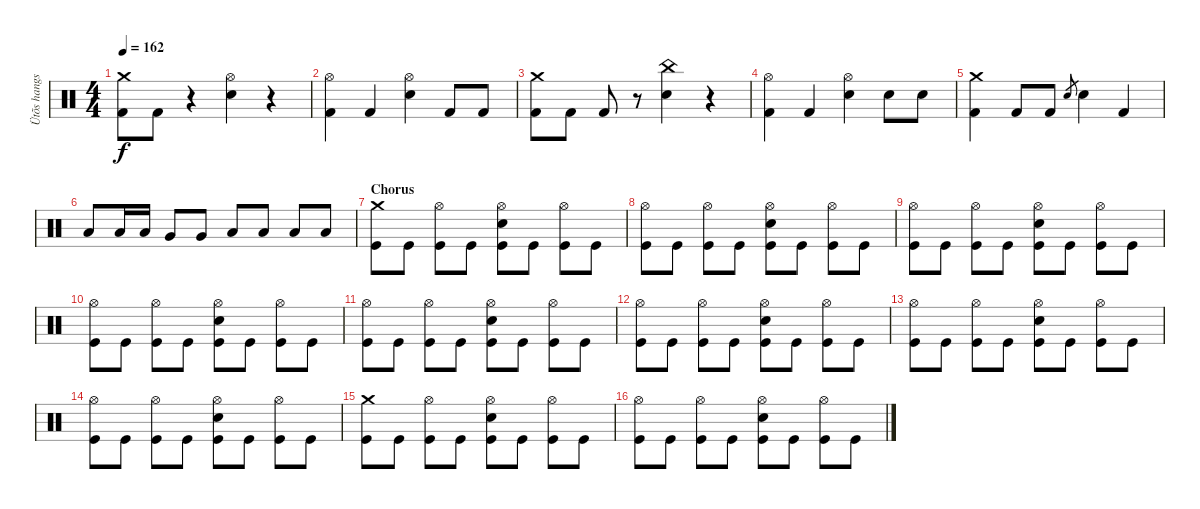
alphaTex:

\track ("Ütõs hangszer" "Ütõs hangs") {instrument percussion}
\staff {score}
\articulation defaults
\ts (4 4)
\tempo 162
\clef neutral
\ks c
("Crash medium (hit)" "Kick (hit) 2").8{dy f} "Kick (hit) 2".8 r.4 ("Hi-Hat (open)" "Electric Snare (hit)").4 r.4 |
("Hi-Hat (open)" "Kick (hit) 2").4 "Kick (hit) 2".4 ("Hi-Hat (open)" "Electric Snare (hit)").4 "Kick (hit) 2".8 "Kick (hit) 2".8 |
("Crash medium (hit)" "Kick (hit) 2").8 "Kick (hit) 2".8 "Kick (hit) 2".8 r.8 ("China (hit)" "Electric Snare (hit)").4 r.4 |
("Hi-Hat (open)" "Kick (hit) 2").4 "Kick (hit) 2".4 ("Hi-Hat (open)" "Electric Snare (hit)").4 "Electric Snare (hit)".8 "Electric Snare (hit)".8 |
("Crash medium (hit)" "Kick (hit) 2").4 "Kick (hit) 2".8 "Kick (hit) 2".8 "Electric Snare (hit)".8{gr} "Electric Snare (hit)".4 "Kick (hit) 2".4 |
"Low Tom (hit)".8 "Low Tom (hit)".16 "Low Tom (hit)".16 "Very Low Tom (hit)".8 "Very Low Tom (hit)".8 "Low Floor Tom (hit)".8 "Low Floor Tom (hit)".8 "Low Floor Tom (hit)".8 "Low Floor Tom (hit)".8 |
\section ("" "Chorus")
("Crash medium (hit)" "Kick (hit)").8 "Kick (hit)".8 ("Hi-Hat (open)" "Kick (hit)").8 "Kick (hit)".8 ("Hi-Hat (open)" "Electric Snare (hit)" "Kick (hit)").8 "Kick (hit)".8 ("Hi-Hat (open)" "Kick (hit)").8 "Kick (hit)".8 |
("Hi-Hat (open)" "Kick (hit)").8 "Kick (hit)".8 ("Hi-Hat (open)" "Kick (hit)").8 "Kick (hit)".8 ("Hi-Hat (open)" "Electric Snare (hit)" "Kick (hit)").8 "Kick (hit)".8 ("Hi-Hat (open)" "Kick (hit)").8 "Kick (hit)".8 |
("Hi-Hat (open)" "Kick (hit)").8 "Kick (hit)".8 ("Hi-Hat (open)" "Kick (hit)").8 "Kick (hit)".8 ("Hi-Hat (open)" "Electric Snare (hit)" "Kick (hit)").8 "Kick (hit)".8 ("Hi-Hat (open)" "Kick (hit)").8 "Kick (hit)".8 |
("Hi-Hat (open)" "Kick (hit)").8 "Kick (hit)".8 ("Hi-Hat (open)" "Kick (hit)").8 "Kick (hit)".8 ("Hi-Hat (open)" "Electric Snare (hit)" "Kick (hit)").8 "Kick (hit)".8 ("Hi-Hat (open)" "Kick (hit)").8 "Kick (hit)".8 |
("Hi-Hat (open)" "Kick (hit)").8 "Kick (hit)".8 ("Hi-Hat (open)" "Kick (hit)").8 "Kick (hit)".8 ("Hi-Hat (open)" "Electric Snare (hit)" "Kick (hit)").8 "Kick (hit)".8 ("Hi-Hat (open)" "Kick (hit)").8 "Kick (hit)".8 |
("Hi-Hat (open)" "Kick (hit)").8 "Kick (hit)".8 ("Hi-Hat (open)" "Kick (hit)").8 "Kick (hit)".8 ("Hi-Hat (open)" "Electric Snare (hit)" "Kick (hit)").8 "Kick (hit)".8 ("Hi-Hat (open)" "Kick (hit)").8 "Kick (hit)".8 |
("Hi-Hat (open)" "Kick (hit)").8 "Kick (hit)".8 ("Hi-Hat (open)" "Kick (hit)").8 "Kick (hit)".8 ("Hi-Hat (open)" "Electric Snare (hit)" "Kick (hit)").8 "Kick (hit)".8 ("Hi-Hat (open)" "Kick (hit)").8 "Kick (hit)".8 |
("Hi-Hat (open)" "Kick (hit)").8 "Kick (hit)".8 ("Hi-Hat (open)" "Kick (hit)").8 "Kick (hit)".8 ("Hi-Hat (open)" "Electric Snare (hit)" "Kick (hit)").8 "Kick (hit)".8 ("Hi-Hat (open)" "Kick (hit)").8 "Kick (hit)".8 |
("Crash medium (hit)" "Kick (hit)").8 "Kick (hit)".8 ("Hi-Hat (open)" "Kick (hit)").8 "Kick (hit)".8 ("Hi-Hat (open)" "Electric Snare (hit)" "Kick (hit)").8 "Kick (hit)".8 ("Hi-Hat (open)" "Kick (hit)").8 "Kick (hit)".8 |
("Hi-Hat (open)" "Kick (hit)").8 "Kick (hit)".8 ("Hi-Hat (open)" "Kick (hit)").8 "Kick (hit)".8 ("Hi-Hat (open)" "Electric Snare (hit)" "Kick (hit)").8 "Kick (hit)".8 ("Hi-Hat (open)" "Kick (hit)").8 "Kick (hit)".8
